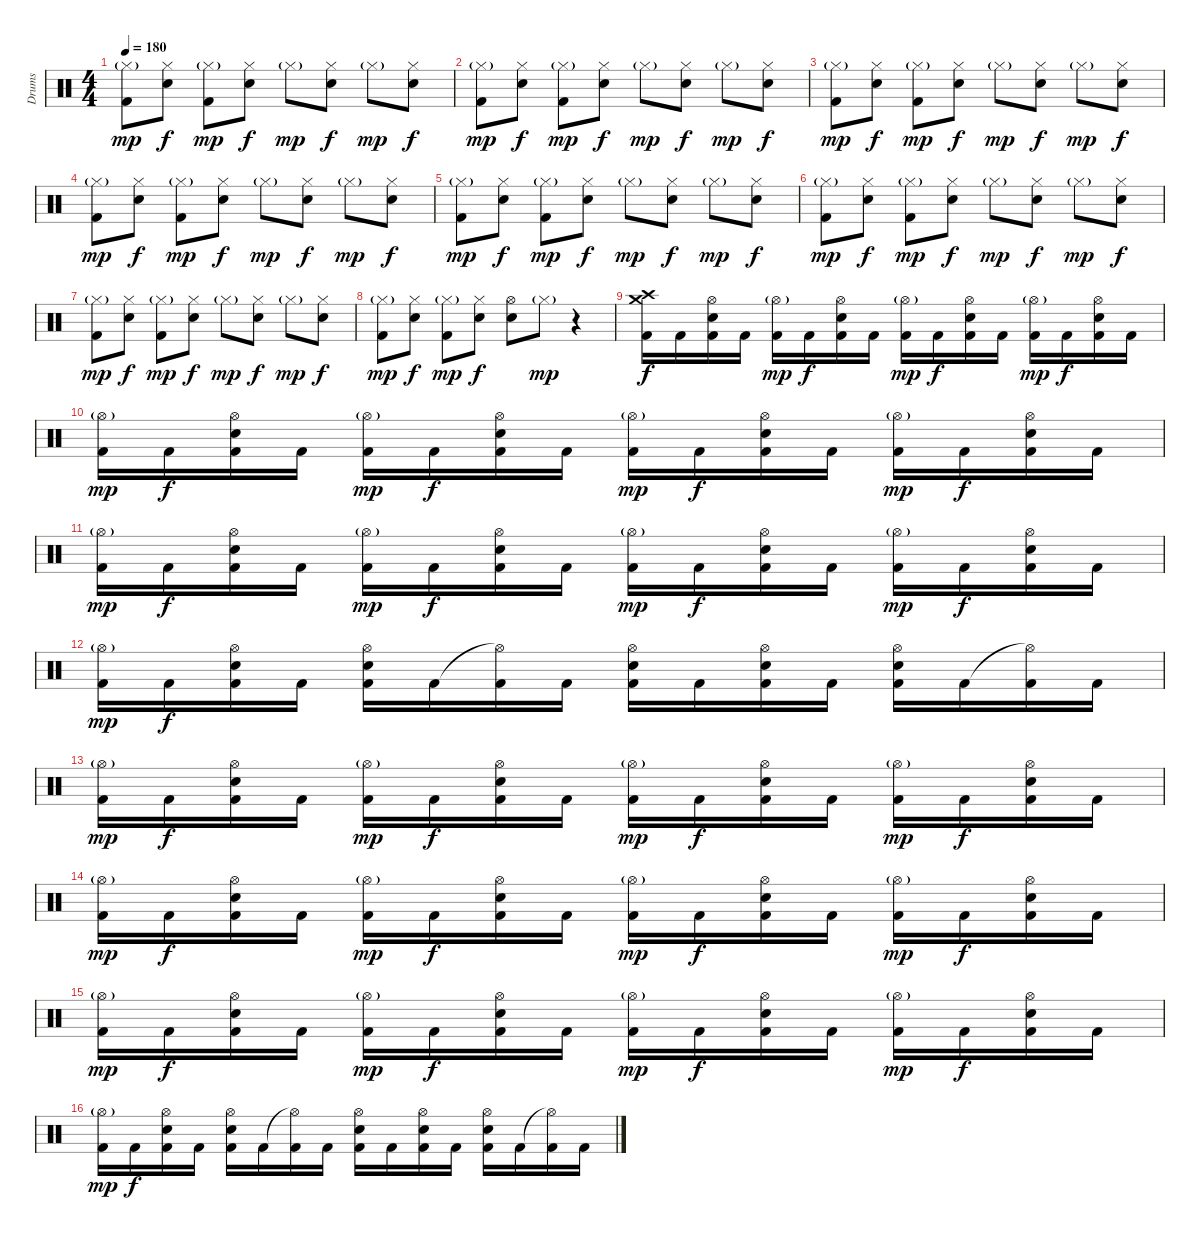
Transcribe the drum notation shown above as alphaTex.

\track ("Drums" "Drums") {instrument percussion}
\staff {score}
\articulation defaults
\ts (4 4)
\tempo 180
\clef neutral
\ks c
("Hi-Hat (closed)"{g} "Kick (hit) 2").8{dy mp} ("Hi-Hat (closed)" "Electric Snare (hit)").8{dy f} ("Hi-Hat (closed)"{g} "Kick (hit) 2").8{dy mp} ("Hi-Hat (closed)" "Electric Snare (hit)").8{dy f} "Hi-Hat (closed)"{g}.8{dy mp} ("Hi-Hat (closed)" "Electric Snare (hit)").8{dy f} "Hi-Hat (closed)"{g}.8{dy mp} ("Hi-Hat (closed)" "Electric Snare (hit)").8{dy f} |
("Hi-Hat (closed)"{g} "Kick (hit) 2").8{dy mp} ("Hi-Hat (closed)" "Electric Snare (hit)").8{dy f} ("Hi-Hat (closed)"{g} "Kick (hit) 2").8{dy mp} ("Hi-Hat (closed)" "Electric Snare (hit)").8{dy f} "Hi-Hat (closed)"{g}.8{dy mp} ("Hi-Hat (closed)" "Electric Snare (hit)").8{dy f} "Hi-Hat (closed)"{g}.8{dy mp} ("Hi-Hat (closed)" "Electric Snare (hit)").8{dy f} |
("Hi-Hat (closed)"{g} "Kick (hit) 2").8{dy mp} ("Hi-Hat (closed)" "Electric Snare (hit)").8{dy f} ("Hi-Hat (closed)"{g} "Kick (hit) 2").8{dy mp} ("Hi-Hat (closed)" "Electric Snare (hit)").8{dy f} "Hi-Hat (closed)"{g}.8{dy mp} ("Hi-Hat (closed)" "Electric Snare (hit)").8{dy f} "Hi-Hat (closed)"{g}.8{dy mp} ("Hi-Hat (closed)" "Electric Snare (hit)").8{dy f} |
("Hi-Hat (closed)"{g} "Kick (hit) 2").8{dy mp} ("Hi-Hat (closed)" "Electric Snare (hit)").8{dy f} ("Hi-Hat (closed)"{g} "Kick (hit) 2").8{dy mp} ("Hi-Hat (closed)" "Electric Snare (hit)").8{dy f} "Hi-Hat (closed)"{g}.8{dy mp} ("Hi-Hat (closed)" "Electric Snare (hit)").8{dy f} "Hi-Hat (closed)"{g}.8{dy mp} ("Hi-Hat (closed)" "Electric Snare (hit)").8{dy f} |
("Hi-Hat (closed)"{g} "Kick (hit) 2").8{dy mp} ("Hi-Hat (closed)" "Electric Snare (hit)").8{dy f} ("Hi-Hat (closed)"{g} "Kick (hit) 2").8{dy mp} ("Hi-Hat (closed)" "Electric Snare (hit)").8{dy f} "Hi-Hat (closed)"{g}.8{dy mp} ("Hi-Hat (closed)" "Electric Snare (hit)").8{dy f} "Hi-Hat (closed)"{g}.8{dy mp} ("Hi-Hat (closed)" "Electric Snare (hit)").8{dy f} |
("Hi-Hat (closed)"{g} "Kick (hit) 2").8{dy mp} ("Hi-Hat (closed)" "Electric Snare (hit)").8{dy f} ("Hi-Hat (closed)"{g} "Kick (hit) 2").8{dy mp} ("Hi-Hat (closed)" "Electric Snare (hit)").8{dy f} "Hi-Hat (closed)"{g}.8{dy mp} ("Hi-Hat (closed)" "Electric Snare (hit)").8{dy f} "Hi-Hat (closed)"{g}.8{dy mp} ("Hi-Hat (closed)" "Electric Snare (hit)").8{dy f} |
("Hi-Hat (closed)"{g} "Kick (hit) 2").8{dy mp} ("Hi-Hat (closed)" "Electric Snare (hit)").8{dy f} ("Hi-Hat (closed)"{g} "Kick (hit) 2").8{dy mp} ("Hi-Hat (closed)" "Electric Snare (hit)").8{dy f} "Hi-Hat (closed)"{g}.8{dy mp} ("Hi-Hat (closed)" "Electric Snare (hit)").8{dy f} "Hi-Hat (closed)"{g}.8{dy mp} ("Hi-Hat (closed)" "Electric Snare (hit)").8{dy f} |
("Hi-Hat (closed)"{g} "Kick (hit) 2").8{dy mp} ("Hi-Hat (closed)" "Electric Snare (hit)").8{dy f} ("Hi-Hat (closed)"{g} "Kick (hit) 2").8{dy mp} ("Hi-Hat (closed)" "Electric Snare (hit)").8{dy f} ("Hi-Hat (open)" "Electric Snare (hit)").8 "Hi-Hat (closed)"{g}.8{dy mp} r.4 |
("Crash medium (hit)" "Crash high (hit)" "Kick (hit) 2").16{dy f} "Kick (hit) 2".16 ("Hi-Hat (open)" "Electric Snare (hit)" "Kick (hit) 2").16 "Kick (hit) 2".16 ("Hi-Hat (open)"{g} "Kick (hit) 2").16{dy mp} "Kick (hit) 2".16{dy f} ("Hi-Hat (open)" "Electric Snare (hit)" "Kick (hit) 2").16 "Kick (hit) 2".16 ("Hi-Hat (open)"{g} "Kick (hit) 2").16{dy mp} "Kick (hit) 2".16{dy f} ("Hi-Hat (open)" "Electric Snare (hit)" "Kick (hit) 2").16 "Kick (hit) 2".16 ("Hi-Hat (open)"{g} "Kick (hit) 2").16{dy mp} "Kick (hit) 2".16{dy f} ("Hi-Hat (open)" "Electric Snare (hit)" "Kick (hit) 2").16 "Kick (hit) 2".16 |
("Hi-Hat (open)"{g} "Kick (hit) 2").16{dy mp} "Kick (hit) 2".16{dy f} ("Hi-Hat (open)" "Electric Snare (hit)" "Kick (hit) 2").16 "Kick (hit) 2".16 ("Hi-Hat (open)"{g} "Kick (hit) 2").16{dy mp} "Kick (hit) 2".16{dy f} ("Hi-Hat (open)" "Electric Snare (hit)" "Kick (hit) 2").16 "Kick (hit) 2".16 ("Hi-Hat (open)"{g} "Kick (hit) 2").16{dy mp} "Kick (hit) 2".16{dy f} ("Hi-Hat (open)" "Electric Snare (hit)" "Kick (hit) 2").16 "Kick (hit) 2".16 ("Hi-Hat (open)"{g} "Kick (hit) 2").16{dy mp} "Kick (hit) 2".16{dy f} ("Hi-Hat (open)" "Electric Snare (hit)" "Kick (hit) 2").16 "Kick (hit) 2".16 |
("Hi-Hat (open)"{g} "Kick (hit) 2").16{dy mp} "Kick (hit) 2".16{dy f} ("Hi-Hat (open)" "Electric Snare (hit)" "Kick (hit) 2").16 "Kick (hit) 2".16 ("Hi-Hat (open)"{g} "Kick (hit) 2").16{dy mp} "Kick (hit) 2".16{dy f} ("Hi-Hat (open)" "Electric Snare (hit)" "Kick (hit) 2").16 "Kick (hit) 2".16 ("Hi-Hat (open)"{g} "Kick (hit) 2").16{dy mp} "Kick (hit) 2".16{dy f} ("Hi-Hat (open)" "Electric Snare (hit)" "Kick (hit) 2").16 "Kick (hit) 2".16 ("Hi-Hat (open)"{g} "Kick (hit) 2").16{dy mp} "Kick (hit) 2".16{dy f} ("Hi-Hat (open)" "Electric Snare (hit)" "Kick (hit) 2").16 "Kick (hit) 2".16 |
("Hi-Hat (open)"{g} "Kick (hit) 2").16{dy mp} "Kick (hit) 2".16{dy f} ("Hi-Hat (open)" "Electric Snare (hit)" "Kick (hit) 2").16 "Kick (hit) 2".16 ("Hi-Hat (open)" "Electric Snare (hit)" "Kick (hit) 2").16 "Kick (hit) 2".16 ("Hi-Hat (open)"{t} "Kick (hit) 2").16 "Kick (hit) 2".16 ("Hi-Hat (open)" "Electric Snare (hit)" "Kick (hit) 2").16 "Kick (hit) 2".16 ("Hi-Hat (open)" "Electric Snare (hit)" "Kick (hit) 2").16 "Kick (hit) 2".16 ("Hi-Hat (open)" "Electric Snare (hit)" "Kick (hit) 2").16 "Kick (hit) 2".16 ("Hi-Hat (open)"{t} "Kick (hit) 2").16 "Kick (hit) 2".16 |
("Hi-Hat (open)"{g} "Kick (hit) 2").16{dy mp} "Kick (hit) 2".16{dy f} ("Hi-Hat (open)" "Electric Snare (hit)" "Kick (hit) 2").16 "Kick (hit) 2".16 ("Hi-Hat (open)"{g} "Kick (hit) 2").16{dy mp} "Kick (hit) 2".16{dy f} ("Hi-Hat (open)" "Electric Snare (hit)" "Kick (hit) 2").16 "Kick (hit) 2".16 ("Hi-Hat (open)"{g} "Kick (hit) 2").16{dy mp} "Kick (hit) 2".16{dy f} ("Hi-Hat (open)" "Electric Snare (hit)" "Kick (hit) 2").16 "Kick (hit) 2".16 ("Hi-Hat (open)"{g} "Kick (hit) 2").16{dy mp} "Kick (hit) 2".16{dy f} ("Hi-Hat (open)" "Electric Snare (hit)" "Kick (hit) 2").16 "Kick (hit) 2".16 |
("Hi-Hat (open)"{g} "Kick (hit) 2").16{dy mp} "Kick (hit) 2".16{dy f} ("Hi-Hat (open)" "Electric Snare (hit)" "Kick (hit) 2").16 "Kick (hit) 2".16 ("Hi-Hat (open)"{g} "Kick (hit) 2").16{dy mp} "Kick (hit) 2".16{dy f} ("Hi-Hat (open)" "Electric Snare (hit)" "Kick (hit) 2").16 "Kick (hit) 2".16 ("Hi-Hat (open)"{g} "Kick (hit) 2").16{dy mp} "Kick (hit) 2".16{dy f} ("Hi-Hat (open)" "Electric Snare (hit)" "Kick (hit) 2").16 "Kick (hit) 2".16 ("Hi-Hat (open)"{g} "Kick (hit) 2").16{dy mp} "Kick (hit) 2".16{dy f} ("Hi-Hat (open)" "Electric Snare (hit)" "Kick (hit) 2").16 "Kick (hit) 2".16 |
("Hi-Hat (open)"{g} "Kick (hit) 2").16{dy mp} "Kick (hit) 2".16{dy f} ("Hi-Hat (open)" "Electric Snare (hit)" "Kick (hit) 2").16 "Kick (hit) 2".16 ("Hi-Hat (open)"{g} "Kick (hit) 2").16{dy mp} "Kick (hit) 2".16{dy f} ("Hi-Hat (open)" "Electric Snare (hit)" "Kick (hit) 2").16 "Kick (hit) 2".16 ("Hi-Hat (open)"{g} "Kick (hit) 2").16{dy mp} "Kick (hit) 2".16{dy f} ("Hi-Hat (open)" "Electric Snare (hit)" "Kick (hit) 2").16 "Kick (hit) 2".16 ("Hi-Hat (open)"{g} "Kick (hit) 2").16{dy mp} "Kick (hit) 2".16{dy f} ("Hi-Hat (open)" "Electric Snare (hit)" "Kick (hit) 2").16 "Kick (hit) 2".16 |
("Hi-Hat (open)"{g} "Kick (hit) 2").16{dy mp} "Kick (hit) 2".16{dy f} ("Hi-Hat (open)" "Electric Snare (hit)" "Kick (hit) 2").16 "Kick (hit) 2".16 ("Hi-Hat (open)" "Electric Snare (hit)" "Kick (hit) 2").16 "Kick (hit) 2".16 ("Hi-Hat (open)"{t} "Kick (hit) 2").16 "Kick (hit) 2".16 ("Hi-Hat (open)" "Electric Snare (hit)" "Kick (hit) 2").16 "Kick (hit) 2".16 ("Hi-Hat (open)" "Electric Snare (hit)" "Kick (hit) 2").16 "Kick (hit) 2".16 ("Hi-Hat (open)" "Electric Snare (hit)" "Kick (hit) 2").16 "Kick (hit) 2".16 ("Hi-Hat (open)"{t} "Kick (hit) 2").16 "Kick (hit) 2".16
